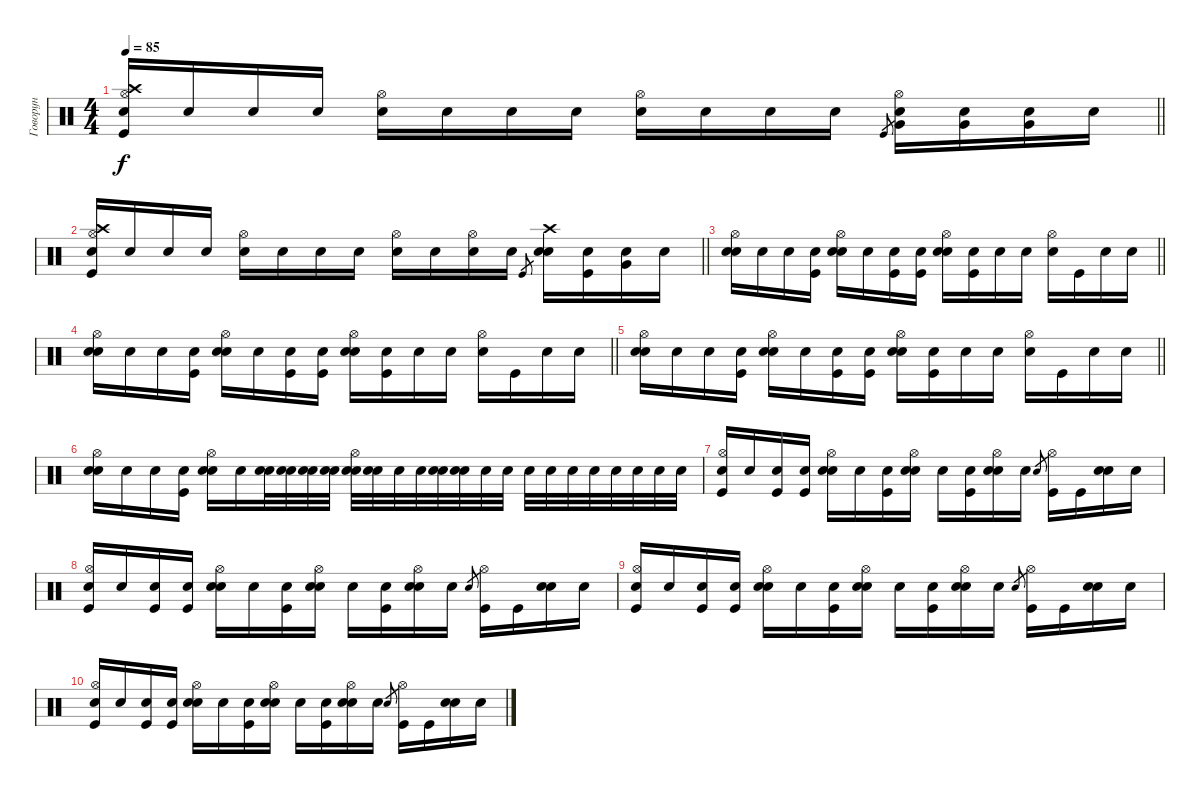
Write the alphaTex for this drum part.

\track ("Говорун" "Говорун") {instrument percussion}
\staff {score}
\articulation defaults
\ts (4 4)
\tempo 85
\clef neutral
\barLineRight lightlight
\ks c
("Kick (hit)" "Hi-Hat (open)" "Crash high (hit)" "Snare (hit)"{x}).16{dy f} "Snare (hit)"{x}.16 "Snare (hit)"{x}.16 "Snare (hit)"{x}.16 ("Hi-Hat (open)" "Snare (hit)"{x}).16 "Snare (hit)"{x}.16 "Snare (hit)"{x}.16 "Snare (hit)"{x}.16 ("Hi-Hat (open)" "Snare (hit)"{x}).16 "Snare (hit)"{x}.16 "Snare (hit)"{x}.16 "Snare (hit)"{x}.16 "Kick (hit)".8{gr} ("Very Low Tom (hit)" "Hi-Hat (open)" "Snare (hit)"{x}).16 ("Very Low Tom (hit)" "Snare (hit)"{x}).16 ("Very Low Tom (hit)" "Snare (hit)"{x}).16 "Snare (hit)"{x}.16 |
\barLineRight lightlight
("Kick (hit)" "Hi-Hat (open)" "Crash high (hit)" "Snare (hit)"{x}).16 "Snare (hit)"{x}.16 "Snare (hit)"{x}.16 "Snare (hit)"{x}.16 ("Hi-Hat (open)" "Snare (hit)"{x}).16 "Snare (hit)"{x}.16 "Snare (hit)"{x}.16 "Snare (hit)"{x}.16 ("Hi-Hat (open)" "Snare (hit)"{x}).16 "Snare (hit)"{x}.16 ("Hi-Hat (open)" "Snare (hit)"{x}).16 "Snare (hit)"{x}.16 "Kick (hit)".8{gr} ("Snare (hit) 2" "Crash high (hit)" "Snare (hit)"{x}).16 ("Kick (hit)" "Snare (hit)"{x}).16 ("Very Low Tom (hit)" "Snare (hit)"{x}).16 "Snare (hit)"{x}.16 |
\barLineRight lightlight
("Snare (hit)"{x} "Hi-Hat (open)" "Snare (hit) 2").16 "Snare (hit)"{x}.16 "Snare (hit)"{x}.16 ("Snare (hit)"{x} "Kick (hit)").16 ("Snare (hit)"{x} "Hi-Hat (open)" "Snare (hit) 2").16 "Snare (hit)"{x}.16 ("Snare (hit)"{x} "Kick (hit)").16 ("Snare (hit)"{x} "Kick (hit)").16 ("Snare (hit)"{x} "Hi-Hat (open)" "Snare (hit) 2").16 ("Snare (hit)"{x} "Kick (hit)").16 "Snare (hit)"{x}.16 "Snare (hit)"{x}.16 ("Hi-Hat (open)" "Snare (hit) 2").16 "Kick (hit)".16 "Snare (hit)"{x}.16 "Snare (hit)"{x}.16 |
\barLineRight lightlight
("Snare (hit)"{x} "Hi-Hat (open)" "Snare (hit) 2").16 "Snare (hit)"{x}.16 "Snare (hit)"{x}.16 ("Snare (hit)"{x} "Kick (hit)").16 ("Snare (hit)"{x} "Hi-Hat (open)" "Snare (hit) 2").16 "Snare (hit)"{x}.16 ("Snare (hit)"{x} "Kick (hit)").16 ("Snare (hit)"{x} "Kick (hit)").16 ("Snare (hit)"{x} "Hi-Hat (open)" "Snare (hit) 2").16 ("Snare (hit)"{x} "Kick (hit)").16 "Snare (hit)"{x}.16 "Snare (hit)"{x}.16 ("Hi-Hat (open)" "Snare (hit) 2").16 "Kick (hit)".16 "Snare (hit)"{x}.16 "Snare (hit)"{x}.16 |
\barLineRight lightlight
("Snare (hit)"{x} "Hi-Hat (open)" "Snare (hit) 2").16 "Snare (hit)"{x}.16 "Snare (hit)"{x}.16 ("Snare (hit)"{x} "Kick (hit)").16 ("Snare (hit)"{x} "Hi-Hat (open)" "Snare (hit) 2").16 "Snare (hit)"{x}.16 ("Snare (hit)"{x} "Kick (hit)").16 ("Snare (hit)"{x} "Kick (hit)").16 ("Snare (hit)"{x} "Hi-Hat (open)" "Snare (hit) 2").16 ("Snare (hit)"{x} "Kick (hit)").16 "Snare (hit)"{x}.16 "Snare (hit)"{x}.16 ("Hi-Hat (open)" "Snare (hit) 2").16 "Kick (hit)".16 "Snare (hit)"{x}.16 "Snare (hit)"{x}.16 |
("Snare (hit)"{x} "Hi-Hat (open)" "Snare (hit) 2").16 "Snare (hit)"{x}.16 "Snare (hit)"{x}.16 ("Snare (hit)"{x} "Kick (hit)").16 ("Snare (hit)"{x} "Hi-Hat (open)" "Snare (hit) 2").16 "Snare (hit)"{x}.16 ("Snare (hit)"{x} "Snare (hit) 2").32 ("Snare (hit)"{x} "Snare (hit) 2").32 ("Snare (hit)"{x} "Snare (hit) 2").32 ("Snare (hit)"{x} "Snare (hit) 2").32 ("Snare (hit)"{x} "Hi-Hat (open)" "Snare (hit) 2").32 ("Snare (hit)"{x} "Snare (hit) 2").32 "Snare (hit) 2".32 "Snare (hit) 2".32 ("Snare (hit)"{x} "Snare (hit) 2").32 ("Snare (hit)"{x} "Snare (hit) 2").32 "Snare (hit) 2".32 "Snare (hit) 2".32 "Snare (hit) 2".32 "Snare (hit) 2".32 "Snare (hit) 2".32 "Snare (hit) 2".32 "Snare (hit) 2".32 "Snare (hit) 2".32 "Snare (hit) 2".32 "Snare (hit) 2".32 |
("Snare (hit)"{x} "Hi-Hat (open)" "Kick (hit)").16 "Snare (hit)"{x}.16 ("Snare (hit)"{x} "Kick (hit)").16 ("Snare (hit)"{x} "Kick (hit)").16 ("Snare (hit)"{x} "Hi-Hat (open)" "Snare (hit) 2").16 "Snare (hit)"{x}.16 ("Snare (hit)"{x} "Kick (hit)").16 ("Snare (hit)"{x} "Hi-Hat (open)" "Snare (hit) 2").16 "Snare (hit)"{x}.16 ("Snare (hit)"{x} "Kick (hit)").16 ("Snare (hit)"{x} "Hi-Hat (open)" "Snare (hit) 2").16 "Snare (hit)"{x}.16 "Snare (hit) 2".8{gr} ("Hi-Hat (open)" "Kick (hit)").16 "Kick (hit)".16 ("Snare (hit)"{x} "Snare (hit) 2").16 "Snare (hit)"{x}.16 |
("Snare (hit)"{x} "Hi-Hat (open)" "Kick (hit)").16 "Snare (hit)"{x}.16 ("Snare (hit)"{x} "Kick (hit)").16 ("Snare (hit)"{x} "Kick (hit)").16 ("Snare (hit)"{x} "Hi-Hat (open)" "Snare (hit) 2").16 "Snare (hit)"{x}.16 ("Snare (hit)"{x} "Kick (hit)").16 ("Snare (hit)"{x} "Hi-Hat (open)" "Snare (hit) 2").16 "Snare (hit)"{x}.16 ("Snare (hit)"{x} "Kick (hit)").16 ("Snare (hit)"{x} "Hi-Hat (open)" "Snare (hit) 2").16 "Snare (hit)"{x}.16 "Snare (hit) 2".8{gr} ("Hi-Hat (open)" "Kick (hit)").16 "Kick (hit)".16 ("Snare (hit)"{x} "Snare (hit) 2").16 "Snare (hit)"{x}.16 |
("Snare (hit)"{x} "Hi-Hat (open)" "Kick (hit)").16 "Snare (hit)"{x}.16 ("Snare (hit)"{x} "Kick (hit)").16 ("Snare (hit)"{x} "Kick (hit)").16 ("Snare (hit)"{x} "Hi-Hat (open)" "Snare (hit) 2").16 "Snare (hit)"{x}.16 ("Snare (hit)"{x} "Kick (hit)").16 ("Snare (hit)"{x} "Hi-Hat (open)" "Snare (hit) 2").16 "Snare (hit)"{x}.16 ("Snare (hit)"{x} "Kick (hit)").16 ("Snare (hit)"{x} "Hi-Hat (open)" "Snare (hit) 2").16 "Snare (hit)"{x}.16 "Snare (hit) 2".8{gr} ("Hi-Hat (open)" "Kick (hit)").16 "Kick (hit)".16 ("Snare (hit)"{x} "Snare (hit) 2").16 "Snare (hit)"{x}.16 |
("Snare (hit)"{x} "Hi-Hat (open)" "Kick (hit)").16 "Snare (hit)"{x}.16 ("Snare (hit)"{x} "Kick (hit)").16 ("Snare (hit)"{x} "Kick (hit)").16 ("Snare (hit)"{x} "Hi-Hat (open)" "Snare (hit) 2").16 "Snare (hit)"{x}.16 ("Snare (hit)"{x} "Kick (hit)").16 ("Snare (hit)"{x} "Hi-Hat (open)" "Snare (hit) 2").16 "Snare (hit)"{x}.16 ("Snare (hit)"{x} "Kick (hit)").16 ("Snare (hit)"{x} "Hi-Hat (open)" "Snare (hit) 2").16 "Snare (hit)"{x}.16 "Snare (hit) 2".8{gr} ("Hi-Hat (open)" "Kick (hit)").16 "Kick (hit)".16 ("Snare (hit)"{x} "Snare (hit) 2").16 "Snare (hit)"{x}.16
